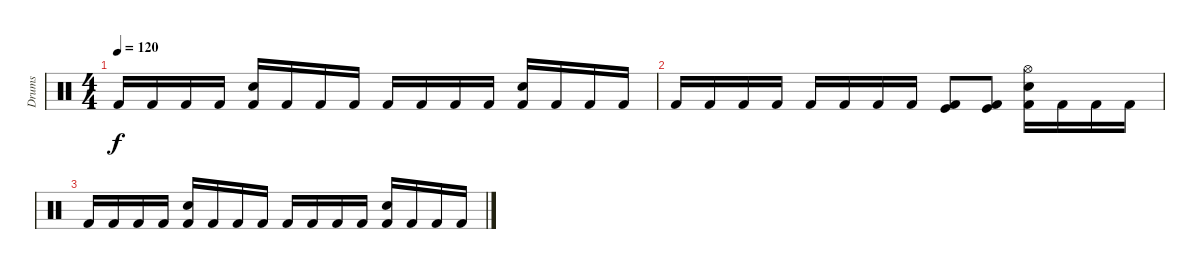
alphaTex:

\track ("Drums" "Drums") {instrument percussion}
\staff {score}
\articulation defaults
\ts (4 4)
\tempo 120
\clef neutral
\ks c "Kick (hit) 2".16{dy f} "Kick (hit) 2".16 "Kick (hit) 2".16 "Kick (hit) 2".16
("Electric Snare (hit)" "Kick (hit) 2").16 "Kick (hit) 2".16 "Kick (hit) 2".16 "Kick (hit) 2".16 "Kick (hit) 2".16 "Kick (hit) 2".16 "Kick (hit) 2".16 "Kick (hit) 2".16 ("Electric Snare (hit)" "Kick (hit) 2").16 "Kick (hit) 2".16 "Kick (hit) 2".16 "Kick (hit) 2".16 |
"Kick (hit) 2".16 "Kick (hit) 2".16 "Kick (hit) 2".16 "Kick (hit) 2".16 "Kick (hit) 2".16 "Kick (hit) 2".16 "Kick (hit) 2".16 "Kick (hit) 2".16 ("Kick (hit)" "Kick (hit) 2").8 ("Kick (hit)" "Kick (hit) 2").8 ("Hi-Hat (open)" "Electric Snare (hit)" "Kick (hit) 2").16 "Kick (hit) 2".16 "Kick (hit) 2".16 "Kick (hit) 2".16 |
"Kick (hit) 2".16 "Kick (hit) 2".16 "Kick (hit) 2".16 "Kick (hit) 2".16 ("Electric Snare (hit)" "Kick (hit) 2").16 "Kick (hit) 2".16 "Kick (hit) 2".16 "Kick (hit) 2".16 "Kick (hit) 2".16 "Kick (hit) 2".16 "Kick (hit) 2".16 "Kick (hit) 2".16 ("Electric Snare (hit)" "Kick (hit) 2").16 "Kick (hit) 2".16 "Kick (hit) 2".16 "Kick (hit) 2".16
